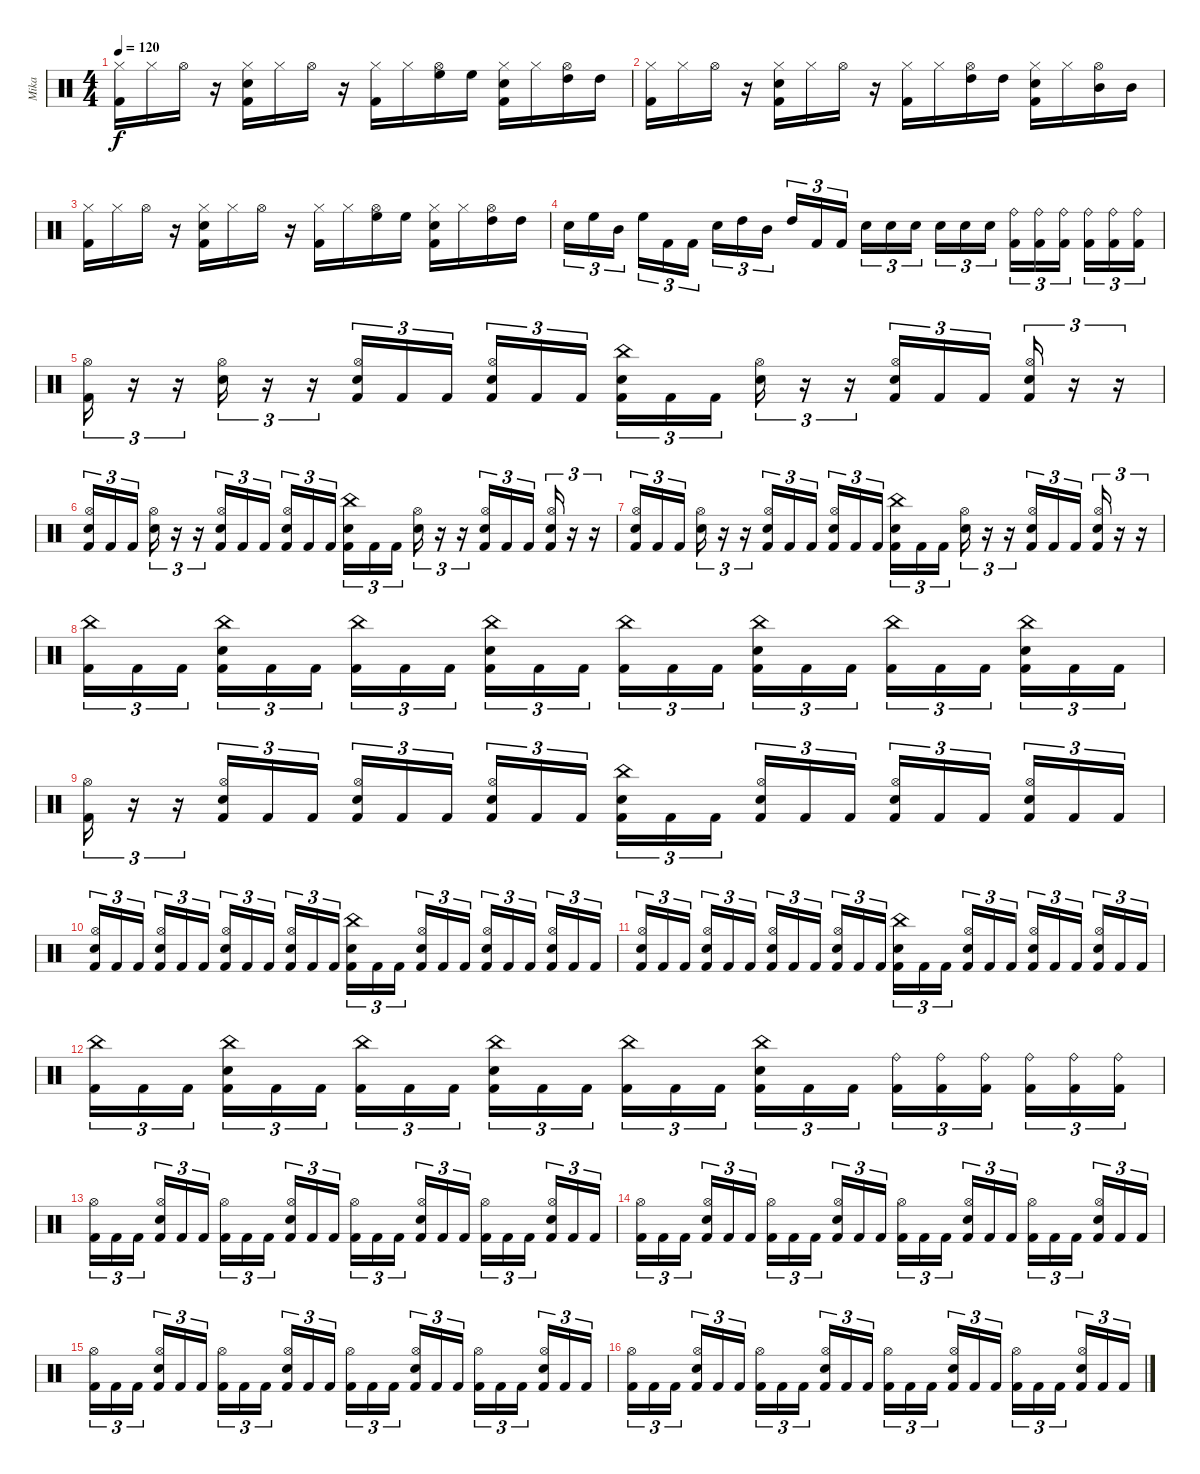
\track ("Mika" "Mika") {instrument percussion}
\staff {score}
\articulation defaults
\ts (4 4)
\tempo 120
\clef neutral
\ks c
("Hi-Hat (closed)" "Kick (hit) 2").16{dy f} "Hi-Hat (closed)".16 "Hi-Hat (open)".16 r.16 ("Hi-Hat (closed)" "Electric Snare (hit)" "Kick (hit) 2").16 "Hi-Hat (closed)".16 "Hi-Hat (open)".16 r.16 ("Hi-Hat (closed)" "Kick (hit) 2").16 "Hi-Hat (closed)".16 ("Hi-Hat (open)" "High Floor Tom (hit)").16 "High Floor Tom (hit)".16 ("Hi-Hat (closed)" "Electric Snare (hit)" "Kick (hit) 2").16 "Hi-Hat (closed)".16 ("Hi-Hat (open)" "High Tom (hit)").16 "High Tom (hit)".16 |
("Hi-Hat (closed)" "Kick (hit) 2").16 "Hi-Hat (closed)".16 "Hi-Hat (open)".16 r.16 ("Hi-Hat (closed)" "Electric Snare (hit)" "Kick (hit) 2").16 "Hi-Hat (closed)".16 "Hi-Hat (open)".16 r.16 ("Hi-Hat (closed)" "Kick (hit) 2").16 "Hi-Hat (closed)".16 ("Hi-Hat (open)" "High Tom (hit)").16 "High Tom (hit)".16 ("Hi-Hat (closed)" "Electric Snare (hit)" "Kick (hit) 2").16 "Hi-Hat (closed)".16 ("Hi-Hat (open)" "Mid Tom (hit)").16 "Mid Tom (hit)".16 |
("Hi-Hat (closed)" "Kick (hit) 2").16 "Hi-Hat (closed)".16 "Hi-Hat (open)".16 r.16 ("Hi-Hat (closed)" "Electric Snare (hit)" "Kick (hit) 2").16 "Hi-Hat (closed)".16 "Hi-Hat (open)".16 r.16 ("Hi-Hat (closed)" "Kick (hit) 2").16 "Hi-Hat (closed)".16 ("Hi-Hat (open)" "High Floor Tom (hit)").16 "High Floor Tom (hit)".16 ("Hi-Hat (closed)" "Electric Snare (hit)" "Kick (hit) 2").16 "Hi-Hat (closed)".16 ("Hi-Hat (open)" "High Tom (hit)").16 "High Tom (hit)".16 |
"Electric Snare (hit)".16{tu (3 2)} "High Floor Tom (hit)".16{tu (3 2)} "Mid Tom (hit)".16{tu (3 2) beam splitsecondary} "High Floor Tom (hit)".16{tu (3 2)} "Kick (hit) 2".16{tu (3 2)} "Kick (hit) 2".16{tu (3 2)} "Electric Snare (hit)".16{tu (3 2)} "High Tom (hit)".16{tu (3 2)} "Mid Tom (hit)".16{tu (3 2) beam splitsecondary} "High Tom (hit)".16{tu (3 2)} "Kick (hit) 2".16{tu (3 2)} "Kick (hit) 2".16{tu (3 2)} "Electric Snare (hit)".16{tu (3 2)} "Electric Snare (hit)".16{tu (3 2)} "Electric Snare (hit)".16{tu (3 2) beam splitsecondary} "Electric Snare (hit)".16{tu (3 2)} "Electric Snare (hit)".16{tu (3 2)} "Electric Snare (hit)".16{tu (3 2)} ("Ride (bell)" "Kick (hit) 2").16{tu (3 2)} ("Ride (bell)" "Kick (hit) 2").16{tu (3 2)} ("Ride (bell)" "Kick (hit) 2").16{tu (3 2) beam splitsecondary} ("Ride (bell)" "Kick (hit) 2").16{tu (3 2)} ("Ride (bell)" "Kick (hit) 2").16{tu (3 2)} ("Ride (bell)" "Kick (hit) 2").16{tu (3 2)} |
("Hi-Hat (open)" "Kick (hit) 2").16{tu (3 2)} r.16{tu (3 2)} r.16{tu (3 2)} ("Hi-Hat (open)" "Electric Snare (hit)").16{tu (3 2)} r.16{tu (3 2)} r.16{tu (3 2)} ("Hi-Hat (open)" "Electric Snare (hit)" "Kick (hit) 2").16{tu (3 2)} "Kick (hit) 2".16{tu (3 2)} "Kick (hit) 2".16{tu (3 2) beam splitsecondary} ("Hi-Hat (open)" "Electric Snare (hit)" "Kick (hit) 2").16{tu (3 2)} "Kick (hit) 2".16{tu (3 2)} "Kick (hit) 2".16{tu (3 2)} ("China (hit)" "Electric Snare (hit)" "Kick (hit) 2").16{tu (3 2)} "Kick (hit) 2".16{tu (3 2)} "Kick (hit) 2".16{tu (3 2) beam splitsecondary} ("Hi-Hat (open)" "Electric Snare (hit)").16{tu (3 2)} r.16{tu (3 2)} r.16{tu (3 2)} ("Hi-Hat (open)" "Electric Snare (hit)" "Kick (hit) 2").16{tu (3 2)} "Kick (hit) 2".16{tu (3 2)} "Kick (hit) 2".16{tu (3 2) beam splitsecondary} ("Hi-Hat (open)" "Electric Snare (hit)" "Kick (hit) 2").16{tu (3 2)} r.16{tu (3 2)} r.16{tu (3 2)} |
("Hi-Hat (open)" "Electric Snare (hit)" "Kick (hit) 2").16{tu (3 2)} "Kick (hit) 2".16{tu (3 2)} "Kick (hit) 2".16{tu (3 2) beam splitsecondary} ("Hi-Hat (open)" "Electric Snare (hit)").16{tu (3 2)} r.16{tu (3 2)} r.16{tu (3 2)} ("Hi-Hat (open)" "Electric Snare (hit)" "Kick (hit) 2").16{tu (3 2)} "Kick (hit) 2".16{tu (3 2)} "Kick (hit) 2".16{tu (3 2) beam splitsecondary} ("Hi-Hat (open)" "Electric Snare (hit)" "Kick (hit) 2").16{tu (3 2)} "Kick (hit) 2".16{tu (3 2)} "Kick (hit) 2".16{tu (3 2)} ("China (hit)" "Electric Snare (hit)" "Kick (hit) 2").16{tu (3 2)} "Kick (hit) 2".16{tu (3 2)} "Kick (hit) 2".16{tu (3 2) beam splitsecondary} ("Hi-Hat (open)" "Electric Snare (hit)").16{tu (3 2)} r.16{tu (3 2)} r.16{tu (3 2)} ("Hi-Hat (open)" "Electric Snare (hit)" "Kick (hit) 2").16{tu (3 2)} "Kick (hit) 2".16{tu (3 2)} "Kick (hit) 2".16{tu (3 2) beam splitsecondary} ("Hi-Hat (open)" "Electric Snare (hit)" "Kick (hit) 2").16{tu (3 2)} r.16{tu (3 2)} r.16{tu (3 2)} |
("Hi-Hat (open)" "Electric Snare (hit)" "Kick (hit) 2").16{tu (3 2)} "Kick (hit) 2".16{tu (3 2)} "Kick (hit) 2".16{tu (3 2) beam splitsecondary} ("Hi-Hat (open)" "Electric Snare (hit)").16{tu (3 2)} r.16{tu (3 2)} r.16{tu (3 2)} ("Hi-Hat (open)" "Electric Snare (hit)" "Kick (hit) 2").16{tu (3 2)} "Kick (hit) 2".16{tu (3 2)} "Kick (hit) 2".16{tu (3 2) beam splitsecondary} ("Hi-Hat (open)" "Electric Snare (hit)" "Kick (hit) 2").16{tu (3 2)} "Kick (hit) 2".16{tu (3 2)} "Kick (hit) 2".16{tu (3 2)} ("China (hit)" "Electric Snare (hit)" "Kick (hit) 2").16{tu (3 2)} "Kick (hit) 2".16{tu (3 2)} "Kick (hit) 2".16{tu (3 2) beam splitsecondary} ("Hi-Hat (open)" "Electric Snare (hit)").16{tu (3 2)} r.16{tu (3 2)} r.16{tu (3 2)} ("Hi-Hat (open)" "Electric Snare (hit)" "Kick (hit) 2").16{tu (3 2)} "Kick (hit) 2".16{tu (3 2)} "Kick (hit) 2".16{tu (3 2) beam splitsecondary} ("Hi-Hat (open)" "Electric Snare (hit)" "Kick (hit) 2").16{tu (3 2)} r.16{tu (3 2)} r.16{tu (3 2)} |
("China (hit)" "Kick (hit) 2").16{tu (3 2)} "Kick (hit) 2".16{tu (3 2)} "Kick (hit) 2".16{tu (3 2) beam splitsecondary} ("China (hit)" "Electric Snare (hit)" "Kick (hit) 2").16{tu (3 2)} "Kick (hit) 2".16{tu (3 2)} "Kick (hit) 2".16{tu (3 2)} ("China (hit)" "Kick (hit) 2").16{tu (3 2)} "Kick (hit) 2".16{tu (3 2)} "Kick (hit) 2".16{tu (3 2) beam splitsecondary} ("China (hit)" "Electric Snare (hit)" "Kick (hit) 2").16{tu (3 2)} "Kick (hit) 2".16{tu (3 2)} "Kick (hit) 2".16{tu (3 2)} ("China (hit)" "Kick (hit) 2").16{tu (3 2)} "Kick (hit) 2".16{tu (3 2)} "Kick (hit) 2".16{tu (3 2) beam splitsecondary} ("China (hit)" "Electric Snare (hit)" "Kick (hit) 2").16{tu (3 2)} "Kick (hit) 2".16{tu (3 2)} "Kick (hit) 2".16{tu (3 2)} ("China (hit)" "Kick (hit) 2").16{tu (3 2)} "Kick (hit) 2".16{tu (3 2)} "Kick (hit) 2".16{tu (3 2) beam splitsecondary} ("China (hit)" "Electric Snare (hit)" "Kick (hit) 2").16{tu (3 2)} "Kick (hit) 2".16{tu (3 2)} "Kick (hit) 2".16{tu (3 2)} |
("Hi-Hat (open)" "Kick (hit) 2").16{tu (3 2)} r.16{tu (3 2)} r.16{tu (3 2)} ("Hi-Hat (open)" "Electric Snare (hit)" "Kick (hit) 2").16{tu (3 2)} "Kick (hit) 2".16{tu (3 2)} "Kick (hit) 2".16{tu (3 2)} ("Hi-Hat (open)" "Electric Snare (hit)" "Kick (hit) 2").16{tu (3 2)} "Kick (hit) 2".16{tu (3 2)} "Kick (hit) 2".16{tu (3 2) beam splitsecondary} ("Hi-Hat (open)" "Electric Snare (hit)" "Kick (hit) 2").16{tu (3 2)} "Kick (hit) 2".16{tu (3 2)} "Kick (hit) 2".16{tu (3 2)} ("China (hit)" "Electric Snare (hit)" "Kick (hit) 2").16{tu (3 2)} "Kick (hit) 2".16{tu (3 2)} "Kick (hit) 2".16{tu (3 2) beam splitsecondary} ("Hi-Hat (open)" "Electric Snare (hit)" "Kick (hit) 2").16{tu (3 2)} "Kick (hit) 2".16{tu (3 2)} "Kick (hit) 2".16{tu (3 2)} ("Hi-Hat (open)" "Electric Snare (hit)" "Kick (hit) 2").16{tu (3 2)} "Kick (hit) 2".16{tu (3 2)} "Kick (hit) 2".16{tu (3 2) beam splitsecondary} ("Hi-Hat (open)" "Electric Snare (hit)" "Kick (hit) 2").16{tu (3 2)} "Kick (hit) 2".16{tu (3 2)} "Kick (hit) 2".16{tu (3 2)} |
("Hi-Hat (open)" "Electric Snare (hit)" "Kick (hit) 2").16{tu (3 2)} "Kick (hit) 2".16{tu (3 2)} "Kick (hit) 2".16{tu (3 2) beam splitsecondary} ("Hi-Hat (open)" "Electric Snare (hit)" "Kick (hit) 2").16{tu (3 2)} "Kick (hit) 2".16{tu (3 2)} "Kick (hit) 2".16{tu (3 2)} ("Hi-Hat (open)" "Electric Snare (hit)" "Kick (hit) 2").16{tu (3 2)} "Kick (hit) 2".16{tu (3 2)} "Kick (hit) 2".16{tu (3 2) beam splitsecondary} ("Hi-Hat (open)" "Electric Snare (hit)" "Kick (hit) 2").16{tu (3 2)} "Kick (hit) 2".16{tu (3 2)} "Kick (hit) 2".16{tu (3 2)} ("China (hit)" "Electric Snare (hit)" "Kick (hit) 2").16{tu (3 2)} "Kick (hit) 2".16{tu (3 2)} "Kick (hit) 2".16{tu (3 2) beam splitsecondary} ("Hi-Hat (open)" "Electric Snare (hit)" "Kick (hit) 2").16{tu (3 2)} "Kick (hit) 2".16{tu (3 2)} "Kick (hit) 2".16{tu (3 2)} ("Hi-Hat (open)" "Electric Snare (hit)" "Kick (hit) 2").16{tu (3 2)} "Kick (hit) 2".16{tu (3 2)} "Kick (hit) 2".16{tu (3 2) beam splitsecondary} ("Hi-Hat (open)" "Electric Snare (hit)" "Kick (hit) 2").16{tu (3 2)} "Kick (hit) 2".16{tu (3 2)} "Kick (hit) 2".16{tu (3 2)} |
("Hi-Hat (open)" "Electric Snare (hit)" "Kick (hit) 2").16{tu (3 2)} "Kick (hit) 2".16{tu (3 2)} "Kick (hit) 2".16{tu (3 2) beam splitsecondary} ("Hi-Hat (open)" "Electric Snare (hit)" "Kick (hit) 2").16{tu (3 2)} "Kick (hit) 2".16{tu (3 2)} "Kick (hit) 2".16{tu (3 2)} ("Hi-Hat (open)" "Electric Snare (hit)" "Kick (hit) 2").16{tu (3 2)} "Kick (hit) 2".16{tu (3 2)} "Kick (hit) 2".16{tu (3 2) beam splitsecondary} ("Hi-Hat (open)" "Electric Snare (hit)" "Kick (hit) 2").16{tu (3 2)} "Kick (hit) 2".16{tu (3 2)} "Kick (hit) 2".16{tu (3 2)} ("China (hit)" "Electric Snare (hit)" "Kick (hit) 2").16{tu (3 2)} "Kick (hit) 2".16{tu (3 2)} "Kick (hit) 2".16{tu (3 2) beam splitsecondary} ("Hi-Hat (open)" "Electric Snare (hit)" "Kick (hit) 2").16{tu (3 2)} "Kick (hit) 2".16{tu (3 2)} "Kick (hit) 2".16{tu (3 2)} ("Hi-Hat (open)" "Electric Snare (hit)" "Kick (hit) 2").16{tu (3 2)} "Kick (hit) 2".16{tu (3 2)} "Kick (hit) 2".16{tu (3 2) beam splitsecondary} ("Hi-Hat (open)" "Electric Snare (hit)" "Kick (hit) 2").16{tu (3 2)} "Kick (hit) 2".16{tu (3 2)} "Kick (hit) 2".16{tu (3 2)} |
("China (hit)" "Kick (hit) 2").16{tu (3 2)} "Kick (hit) 2".16{tu (3 2)} "Kick (hit) 2".16{tu (3 2) beam splitsecondary} ("China (hit)" "Electric Snare (hit)" "Kick (hit) 2").16{tu (3 2)} "Kick (hit) 2".16{tu (3 2)} "Kick (hit) 2".16{tu (3 2)} ("China (hit)" "Kick (hit) 2").16{tu (3 2)} "Kick (hit) 2".16{tu (3 2)} "Kick (hit) 2".16{tu (3 2) beam splitsecondary} ("China (hit)" "Electric Snare (hit)" "Kick (hit) 2").16{tu (3 2)} "Kick (hit) 2".16{tu (3 2)} "Kick (hit) 2".16{tu (3 2)} ("China (hit)" "Kick (hit) 2").16{tu (3 2)} "Kick (hit) 2".16{tu (3 2)} "Kick (hit) 2".16{tu (3 2) beam splitsecondary} ("China (hit)" "Electric Snare (hit)" "Kick (hit) 2").16{tu (3 2)} "Kick (hit) 2".16{tu (3 2)} "Kick (hit) 2".16{tu (3 2)} ("Ride (bell)" "Kick (hit) 2").16{tu (3 2)} ("Ride (bell)" "Kick (hit) 2").16{tu (3 2)} ("Ride (bell)" "Kick (hit) 2").16{tu (3 2) beam splitsecondary} ("Ride (bell)" "Kick (hit) 2").16{tu (3 2)} ("Ride (bell)" "Kick (hit) 2").16{tu (3 2)} ("Ride (bell)" "Kick (hit) 2").16{tu (3 2)} |
("Hi-Hat (open)" "Kick (hit) 2").16{tu (3 2)} "Kick (hit) 2".16{tu (3 2)} "Kick (hit) 2".16{tu (3 2) beam splitsecondary} ("Hi-Hat (open)" "Electric Snare (hit)" "Kick (hit) 2").16{tu (3 2)} "Kick (hit) 2".16{tu (3 2)} "Kick (hit) 2".16{tu (3 2)} ("Hi-Hat (open)" "Kick (hit) 2").16{tu (3 2)} "Kick (hit) 2".16{tu (3 2)} "Kick (hit) 2".16{tu (3 2) beam splitsecondary} ("Hi-Hat (open)" "Electric Snare (hit)" "Kick (hit) 2").16{tu (3 2)} "Kick (hit) 2".16{tu (3 2)} "Kick (hit) 2".16{tu (3 2)} ("Hi-Hat (open)" "Kick (hit) 2").16{tu (3 2)} "Kick (hit) 2".16{tu (3 2)} "Kick (hit) 2".16{tu (3 2) beam splitsecondary} ("Hi-Hat (open)" "Electric Snare (hit)" "Kick (hit) 2").16{tu (3 2)} "Kick (hit) 2".16{tu (3 2)} "Kick (hit) 2".16{tu (3 2)} ("Hi-Hat (open)" "Kick (hit) 2").16{tu (3 2)} "Kick (hit) 2".16{tu (3 2)} "Kick (hit) 2".16{tu (3 2) beam splitsecondary} ("Hi-Hat (open)" "Electric Snare (hit)" "Kick (hit) 2").16{tu (3 2)} "Kick (hit) 2".16{tu (3 2)} "Kick (hit) 2".16{tu (3 2)} |
("Hi-Hat (open)" "Kick (hit) 2").16{tu (3 2)} "Kick (hit) 2".16{tu (3 2)} "Kick (hit) 2".16{tu (3 2) beam splitsecondary} ("Hi-Hat (open)" "Electric Snare (hit)" "Kick (hit) 2").16{tu (3 2)} "Kick (hit) 2".16{tu (3 2)} "Kick (hit) 2".16{tu (3 2)} ("Hi-Hat (open)" "Kick (hit) 2").16{tu (3 2)} "Kick (hit) 2".16{tu (3 2)} "Kick (hit) 2".16{tu (3 2) beam splitsecondary} ("Hi-Hat (open)" "Electric Snare (hit)" "Kick (hit) 2").16{tu (3 2)} "Kick (hit) 2".16{tu (3 2)} "Kick (hit) 2".16{tu (3 2)} ("Hi-Hat (open)" "Kick (hit) 2").16{tu (3 2)} "Kick (hit) 2".16{tu (3 2)} "Kick (hit) 2".16{tu (3 2) beam splitsecondary} ("Hi-Hat (open)" "Electric Snare (hit)" "Kick (hit) 2").16{tu (3 2)} "Kick (hit) 2".16{tu (3 2)} "Kick (hit) 2".16{tu (3 2)} ("Hi-Hat (open)" "Kick (hit) 2").16{tu (3 2)} "Kick (hit) 2".16{tu (3 2)} "Kick (hit) 2".16{tu (3 2) beam splitsecondary} ("Hi-Hat (open)" "Electric Snare (hit)" "Kick (hit) 2").16{tu (3 2)} "Kick (hit) 2".16{tu (3 2)} "Kick (hit) 2".16{tu (3 2)} |
("Hi-Hat (open)" "Kick (hit) 2").16{tu (3 2)} "Kick (hit) 2".16{tu (3 2)} "Kick (hit) 2".16{tu (3 2) beam splitsecondary} ("Hi-Hat (open)" "Electric Snare (hit)" "Kick (hit) 2").16{tu (3 2)} "Kick (hit) 2".16{tu (3 2)} "Kick (hit) 2".16{tu (3 2)} ("Hi-Hat (open)" "Kick (hit) 2").16{tu (3 2)} "Kick (hit) 2".16{tu (3 2)} "Kick (hit) 2".16{tu (3 2) beam splitsecondary} ("Hi-Hat (open)" "Electric Snare (hit)" "Kick (hit) 2").16{tu (3 2)} "Kick (hit) 2".16{tu (3 2)} "Kick (hit) 2".16{tu (3 2)} ("Hi-Hat (open)" "Kick (hit) 2").16{tu (3 2)} "Kick (hit) 2".16{tu (3 2)} "Kick (hit) 2".16{tu (3 2) beam splitsecondary} ("Hi-Hat (open)" "Electric Snare (hit)" "Kick (hit) 2").16{tu (3 2)} "Kick (hit) 2".16{tu (3 2)} "Kick (hit) 2".16{tu (3 2)} ("Hi-Hat (open)" "Kick (hit) 2").16{tu (3 2)} "Kick (hit) 2".16{tu (3 2)} "Kick (hit) 2".16{tu (3 2) beam splitsecondary} ("Hi-Hat (open)" "Electric Snare (hit)" "Kick (hit) 2").16{tu (3 2)} "Kick (hit) 2".16{tu (3 2)} "Kick (hit) 2".16{tu (3 2)} |
("Hi-Hat (open)" "Kick (hit) 2").16{tu (3 2)} "Kick (hit) 2".16{tu (3 2)} "Kick (hit) 2".16{tu (3 2) beam splitsecondary} ("Hi-Hat (open)" "Electric Snare (hit)" "Kick (hit) 2").16{tu (3 2)} "Kick (hit) 2".16{tu (3 2)} "Kick (hit) 2".16{tu (3 2)} ("Hi-Hat (open)" "Kick (hit) 2").16{tu (3 2)} "Kick (hit) 2".16{tu (3 2)} "Kick (hit) 2".16{tu (3 2) beam splitsecondary} ("Hi-Hat (open)" "Electric Snare (hit)" "Kick (hit) 2").16{tu (3 2)} "Kick (hit) 2".16{tu (3 2)} "Kick (hit) 2".16{tu (3 2)} ("Hi-Hat (open)" "Kick (hit) 2").16{tu (3 2)} "Kick (hit) 2".16{tu (3 2)} "Kick (hit) 2".16{tu (3 2) beam splitsecondary} ("Hi-Hat (open)" "Electric Snare (hit)" "Kick (hit) 2").16{tu (3 2)} "Kick (hit) 2".16{tu (3 2)} "Kick (hit) 2".16{tu (3 2)} ("Hi-Hat (open)" "Kick (hit) 2").16{tu (3 2)} "Kick (hit) 2".16{tu (3 2)} "Kick (hit) 2".16{tu (3 2) beam splitsecondary} ("Hi-Hat (open)" "Electric Snare (hit)" "Kick (hit) 2").16{tu (3 2)} "Kick (hit) 2".16{tu (3 2)} "Kick (hit) 2".16{tu (3 2)}
